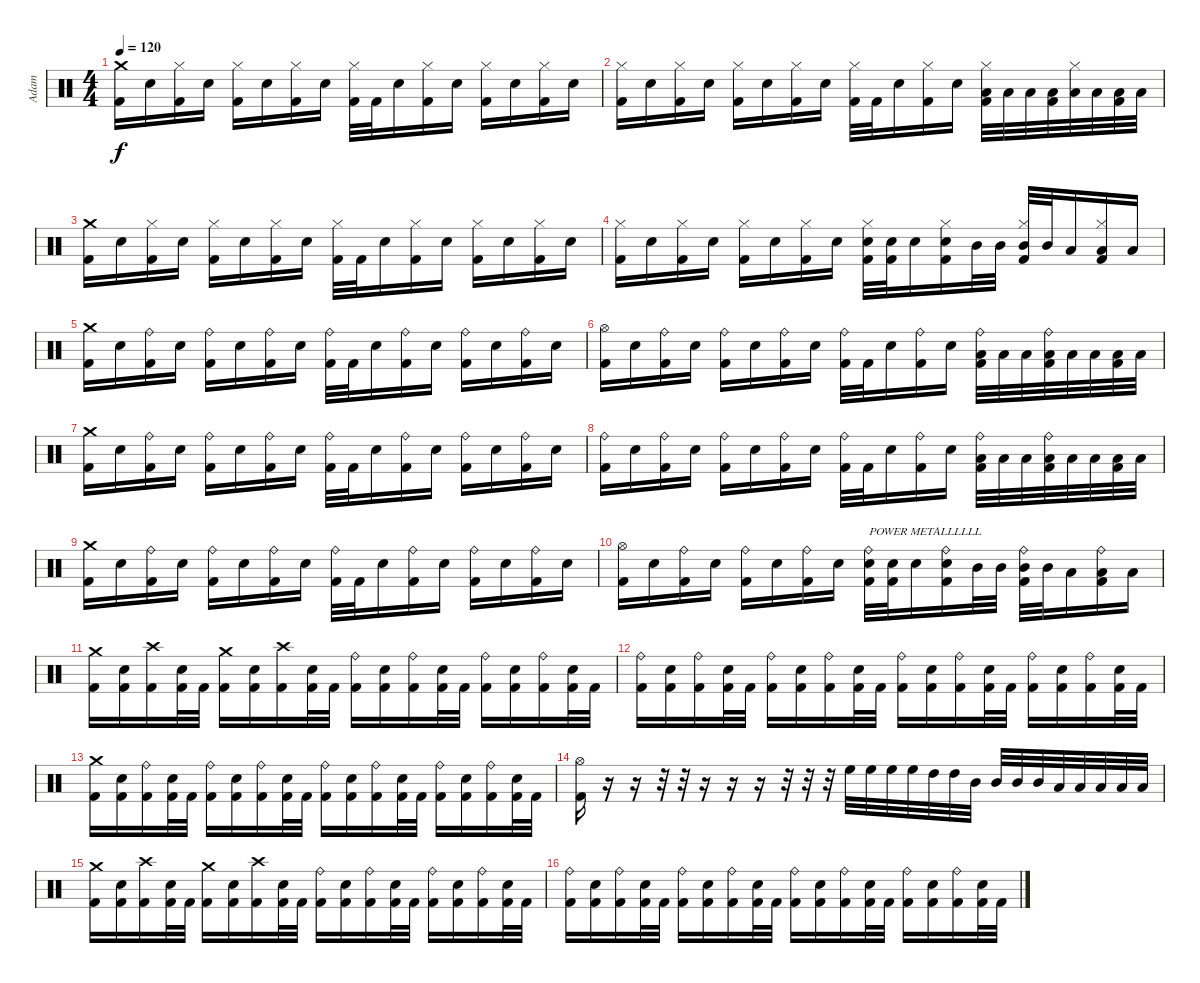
\track ("Adam" "Adam") {instrument percussion}
\staff {score}
\articulation defaults
\ts (4 4)
\tempo 120
\clef neutral
\ks c
("Crash medium (hit)" "Kick (hit) 2").16{dy f} "Electric Snare (hit)".16 ("Hi-Hat (closed)" "Kick (hit) 2").16 "Electric Snare (hit)".16 ("Hi-Hat (closed)" "Kick (hit) 2").16 "Electric Snare (hit)".16 ("Hi-Hat (closed)" "Kick (hit) 2").16 "Electric Snare (hit)".16 ("Hi-Hat (closed)" "Kick (hit) 2").32 "Kick (hit) 2".32 "Electric Snare (hit)".16 ("Hi-Hat (closed)" "Kick (hit) 2").16 "Electric Snare (hit)".16 ("Hi-Hat (closed)" "Kick (hit) 2").16 "Electric Snare (hit)".16 ("Hi-Hat (closed)" "Kick (hit) 2").16 "Electric Snare (hit)".16 |
("Hi-Hat (closed)" "Kick (hit) 2").16 "Electric Snare (hit)".16 ("Hi-Hat (closed)" "Kick (hit) 2").16 "Electric Snare (hit)".16 ("Hi-Hat (closed)" "Kick (hit) 2").16 "Electric Snare (hit)".16 ("Hi-Hat (closed)" "Kick (hit) 2").16 "Electric Snare (hit)".16 ("Hi-Hat (closed)" "Kick (hit) 2").32 "Kick (hit) 2".32 "Electric Snare (hit)".16 ("Hi-Hat (closed)" "Kick (hit) 2").16 "Electric Snare (hit)".16 ("Hi-Hat (closed)" "Low Tom (hit)" "Kick (hit) 2").32 "Low Tom (hit)".32 "Low Tom (hit)".32 ("Low Tom (hit)" "Kick (hit) 2").32 ("Hi-Hat (closed)" "Low Tom (hit)").32 "Low Floor Tom (hit)".32 ("Low Floor Tom (hit)" "Kick (hit) 2").32 "Low Floor Tom (hit)".32 |
("Crash medium (hit)" "Kick (hit) 2").16 "Electric Snare (hit)".16 ("Hi-Hat (closed)" "Kick (hit) 2").16 "Electric Snare (hit)".16 ("Hi-Hat (closed)" "Kick (hit) 2").16 "Electric Snare (hit)".16 ("Hi-Hat (closed)" "Kick (hit) 2").16 "Electric Snare (hit)".16 ("Hi-Hat (closed)" "Kick (hit) 2").32 "Kick (hit) 2".32 "Electric Snare (hit)".16 ("Hi-Hat (closed)" "Kick (hit) 2").16 "Electric Snare (hit)".16 ("Hi-Hat (closed)" "Kick (hit) 2").16 "Electric Snare (hit)".16 ("Hi-Hat (closed)" "Kick (hit) 2").16 "Electric Snare (hit)".16 |
("Hi-Hat (closed)" "Kick (hit) 2").16 "Electric Snare (hit)".16 ("Hi-Hat (closed)" "Kick (hit) 2").16 "Electric Snare (hit)".16 ("Hi-Hat (closed)" "Kick (hit) 2").16 "Electric Snare (hit)".16 ("Hi-Hat (closed)" "Kick (hit) 2").16 "Electric Snare (hit)".16 ("Hi-Hat (closed)" "Electric Snare (hit)" "Kick (hit) 2").32 ("Electric Snare (hit)" "Kick (hit) 2").32 "Electric Snare (hit)".16 ("Hi-Hat (closed)" "Electric Snare (hit)" "Kick (hit) 2").16 "Mid Tom (hit)".32 "Mid Tom (hit)".32 ("Hi-Hat (closed)" "Mid Tom (hit)" "Kick (hit) 2").32 "Mid Tom (hit)".32 "Low Tom (hit)".16 ("Hi-Hat (closed)" "Low Tom (hit)" "Kick (hit) 2").16 "Low Tom (hit)".16 |
("Crash medium (hit)" "Kick (hit) 2").16 "Electric Snare (hit)".16 ("Ride (bell)" "Kick (hit) 2").16 "Electric Snare (hit)".16 ("Ride (bell)" "Kick (hit) 2").16 "Electric Snare (hit)".16 ("Ride (bell)" "Kick (hit) 2").16 "Electric Snare (hit)".16 ("Ride (bell)" "Kick (hit) 2").32 "Kick (hit) 2".32 "Electric Snare (hit)".16 ("Ride (bell)" "Kick (hit) 2").16 "Electric Snare (hit)".16 ("Ride (bell)" "Kick (hit) 2").16 "Electric Snare (hit)".16 ("Ride (bell)" "Kick (hit) 2").16 "Electric Snare (hit)".16 |
("Hi-Hat (open)" "Kick (hit) 2").16 "Electric Snare (hit)".16 ("Ride (bell)" "Kick (hit) 2").16 "Electric Snare (hit)".16 ("Ride (bell)" "Kick (hit) 2").16 "Electric Snare (hit)".16 ("Ride (bell)" "Kick (hit) 2").16 "Electric Snare (hit)".16 ("Ride (bell)" "Kick (hit) 2").32 "Kick (hit) 2".32 "Electric Snare (hit)".16 ("Ride (bell)" "Kick (hit) 2").16 "Electric Snare (hit)".16 ("Ride (bell)" "Low Tom (hit)" "Kick (hit) 2").32 "Low Tom (hit)".32 "Low Tom (hit)".32 ("Ride (bell)" "Low Tom (hit)" "Kick (hit) 2").32 "Low Tom (hit)".32 "Low Floor Tom (hit)".32 ("Low Floor Tom (hit)" "Kick (hit) 2").32 "Low Floor Tom (hit)".32 |
("Crash medium (hit)" "Kick (hit) 2").16 "Electric Snare (hit)".16 ("Ride (bell)" "Kick (hit) 2").16 "Electric Snare (hit)".16 ("Ride (bell)" "Kick (hit) 2").16 "Electric Snare (hit)".16 ("Ride (bell)" "Kick (hit) 2").16 "Electric Snare (hit)".16 ("Ride (bell)" "Kick (hit) 2").32 "Kick (hit) 2".32 "Electric Snare (hit)".16 ("Ride (bell)" "Kick (hit) 2").16 "Electric Snare (hit)".16 ("Ride (bell)" "Kick (hit) 2").16 "Electric Snare (hit)".16 ("Ride (bell)" "Kick (hit) 2").16 "Electric Snare (hit)".16 |
("Ride (bell)" "Kick (hit) 2").16 "Electric Snare (hit)".16 ("Ride (bell)" "Kick (hit) 2").16 "Electric Snare (hit)".16 ("Ride (bell)" "Kick (hit) 2").16 "Electric Snare (hit)".16 ("Ride (bell)" "Kick (hit) 2").16 "Electric Snare (hit)".16 ("Ride (bell)" "Kick (hit) 2").32 "Kick (hit) 2".32 "Electric Snare (hit)".16 ("Ride (bell)" "Kick (hit) 2").16 "Electric Snare (hit)".16 ("Ride (bell)" "Low Tom (hit)" "Kick (hit) 2").32 "Low Tom (hit)".32 "Low Tom (hit)".32 ("Ride (bell)" "Low Tom (hit)" "Kick (hit) 2").32 "Low Tom (hit)".32 "Low Floor Tom (hit)".32 ("Low Floor Tom (hit)" "Kick (hit) 2").32 "Low Floor Tom (hit)".32 |
("Crash medium (hit)" "Kick (hit) 2").16 "Electric Snare (hit)".16 ("Ride (bell)" "Kick (hit) 2").16 "Electric Snare (hit)".16 ("Ride (bell)" "Kick (hit) 2").16 "Electric Snare (hit)".16 ("Ride (bell)" "Kick (hit) 2").16 "Electric Snare (hit)".16 ("Ride (bell)" "Kick (hit) 2").32 "Kick (hit) 2".32 "Electric Snare (hit)".16 ("Ride (bell)" "Kick (hit) 2").16 "Electric Snare (hit)".16 ("Ride (bell)" "Kick (hit) 2").16 "Electric Snare (hit)".16 ("Ride (bell)" "Kick (hit) 2").16 "Electric Snare (hit)".16 |
("Hi-Hat (open)" "Kick (hit) 2").16 "Electric Snare (hit)".16 ("Ride (bell)" "Kick (hit) 2").16 "Electric Snare (hit)".16 ("Ride (bell)" "Kick (hit) 2").16 "Electric Snare (hit)".16 ("Ride (bell)" "Kick (hit) 2").16 "Electric Snare (hit)".16 ("Ride (bell)" "Electric Snare (hit)" "Kick (hit) 2").32{txt "POWER METALLLLLL"} ("Electric Snare (hit)" "Kick (hit) 2").32 "Electric Snare (hit)".16 ("Ride (bell)" "Electric Snare (hit)" "Kick (hit) 2").16 "Mid Tom (hit)".32 "Mid Tom (hit)".32 ("Ride (bell)" "Mid Tom (hit)" "Kick (hit) 2").32 "Mid Tom (hit)".32 "Low Tom (hit)".16 ("Ride (bell)" "Low Tom (hit)" "Kick (hit) 2").16 "Low Tom (hit)".16 |
("Crash medium (hit)" "Kick (hit) 2").16 ("Electric Snare (hit)" "Kick (hit) 2").16 ("Crash high (hit)" "Kick (hit) 2").16 ("Electric Snare (hit)" "Kick (hit) 2").32 "Kick (hit) 2".32 ("Crash medium (hit)" "Kick (hit) 2").16 ("Electric Snare (hit)" "Kick (hit) 2").16 ("Crash high (hit)" "Kick (hit) 2").16 ("Electric Snare (hit)" "Kick (hit) 2").32 "Kick (hit) 2".32 ("Ride (bell)" "Kick (hit) 2").16 ("Electric Snare (hit)" "Kick (hit) 2").16 ("Ride (bell)" "Kick (hit) 2").16 ("Electric Snare (hit)" "Kick (hit) 2").32 "Kick (hit) 2".32 ("Ride (bell)" "Kick (hit) 2").16 ("Electric Snare (hit)" "Kick (hit) 2").16 ("Ride (bell)" "Kick (hit) 2").16 ("Electric Snare (hit)" "Kick (hit) 2").32 "Kick (hit) 2".32 |
("Ride (bell)" "Kick (hit) 2").16 ("Electric Snare (hit)" "Kick (hit) 2").16 ("Ride (bell)" "Kick (hit) 2").16 ("Electric Snare (hit)" "Kick (hit) 2").32 "Kick (hit) 2".32 ("Ride (bell)" "Kick (hit) 2").16 ("Electric Snare (hit)" "Kick (hit) 2").16 ("Ride (bell)" "Kick (hit) 2").16 ("Electric Snare (hit)" "Kick (hit) 2").32 "Kick (hit) 2".32 ("Ride (bell)" "Kick (hit) 2").16 ("Electric Snare (hit)" "Kick (hit) 2").16 ("Ride (bell)" "Kick (hit) 2").16 ("Electric Snare (hit)" "Kick (hit) 2").32 "Kick (hit) 2".32 ("Ride (bell)" "Kick (hit) 2").16 ("Electric Snare (hit)" "Kick (hit) 2").16 ("Ride (bell)" "Kick (hit) 2").16 ("Electric Snare (hit)" "Kick (hit) 2").32 "Kick (hit) 2".32 |
("Crash medium (hit)" "Kick (hit) 2").16 ("Electric Snare (hit)" "Kick (hit) 2").16 ("Ride (bell)" "Kick (hit) 2").16 ("Electric Snare (hit)" "Kick (hit) 2").32 "Kick (hit) 2".32 ("Ride (bell)" "Kick (hit) 2").16 ("Electric Snare (hit)" "Kick (hit) 2").16 ("Ride (bell)" "Kick (hit) 2").16 ("Electric Snare (hit)" "Kick (hit) 2").32 "Kick (hit) 2".32 ("Ride (bell)" "Kick (hit) 2").16 ("Electric Snare (hit)" "Kick (hit) 2").16 ("Ride (bell)" "Kick (hit) 2").16 ("Electric Snare (hit)" "Kick (hit) 2").32 "Kick (hit) 2".32 ("Ride (bell)" "Kick (hit) 2").16 ("Electric Snare (hit)" "Kick (hit) 2").16 ("Ride (bell)" "Kick (hit) 2").16 ("Electric Snare (hit)" "Kick (hit) 2").32 "Kick (hit) 2".32 |
("Hi-Hat (open)" "Kick (hit) 2").16 r.16 r.16 r.32 r.32 r.16 r.16 r.16 r.32 r.32 r.32 "High Floor Tom (hit)".32 "High Floor Tom (hit)".32 "High Floor Tom (hit)".32 "High Floor Tom (hit)".32 "High Tom (hit)".32 "High Tom (hit)".32 "Mid Tom (hit)".32 "Mid Tom (hit)".32 "Mid Tom (hit)".32 "Mid Tom (hit)".32 "Low Tom (hit)".32 "Low Tom (hit)".32 "Low Tom (hit)".32 "Low Tom (hit)".32 "Low Tom (hit)".32 |
("Crash medium (hit)" "Kick (hit) 2").16 ("Electric Snare (hit)" "Kick (hit) 2").16 ("Crash high (hit)" "Kick (hit) 2").16 ("Electric Snare (hit)" "Kick (hit) 2").32 "Kick (hit) 2".32 ("Crash medium (hit)" "Kick (hit) 2").16 ("Electric Snare (hit)" "Kick (hit) 2").16 ("Crash high (hit)" "Kick (hit) 2").16 ("Electric Snare (hit)" "Kick (hit) 2").32 "Kick (hit) 2".32 ("Ride (bell)" "Kick (hit) 2").16 ("Electric Snare (hit)" "Kick (hit) 2").16 ("Ride (bell)" "Kick (hit) 2").16 ("Electric Snare (hit)" "Kick (hit) 2").32 "Kick (hit) 2".32 ("Ride (bell)" "Kick (hit) 2").16 ("Electric Snare (hit)" "Kick (hit) 2").16 ("Ride (bell)" "Kick (hit) 2").16 ("Electric Snare (hit)" "Kick (hit) 2").32 "Kick (hit) 2".32 |
("Ride (bell)" "Kick (hit) 2").16 ("Electric Snare (hit)" "Kick (hit) 2").16 ("Ride (bell)" "Kick (hit) 2").16 ("Electric Snare (hit)" "Kick (hit) 2").32 "Kick (hit) 2".32 ("Ride (bell)" "Kick (hit) 2").16 ("Electric Snare (hit)" "Kick (hit) 2").16 ("Ride (bell)" "Kick (hit) 2").16 ("Electric Snare (hit)" "Kick (hit) 2").32 "Kick (hit) 2".32 ("Ride (bell)" "Kick (hit) 2").16 ("Electric Snare (hit)" "Kick (hit) 2").16 ("Ride (bell)" "Kick (hit) 2").16 ("Electric Snare (hit)" "Kick (hit) 2").32 "Kick (hit) 2".32 ("Ride (bell)" "Kick (hit) 2").16 ("Electric Snare (hit)" "Kick (hit) 2").16 ("Ride (bell)" "Kick (hit) 2").16 ("Electric Snare (hit)" "Kick (hit) 2").32 "Kick (hit) 2".32
